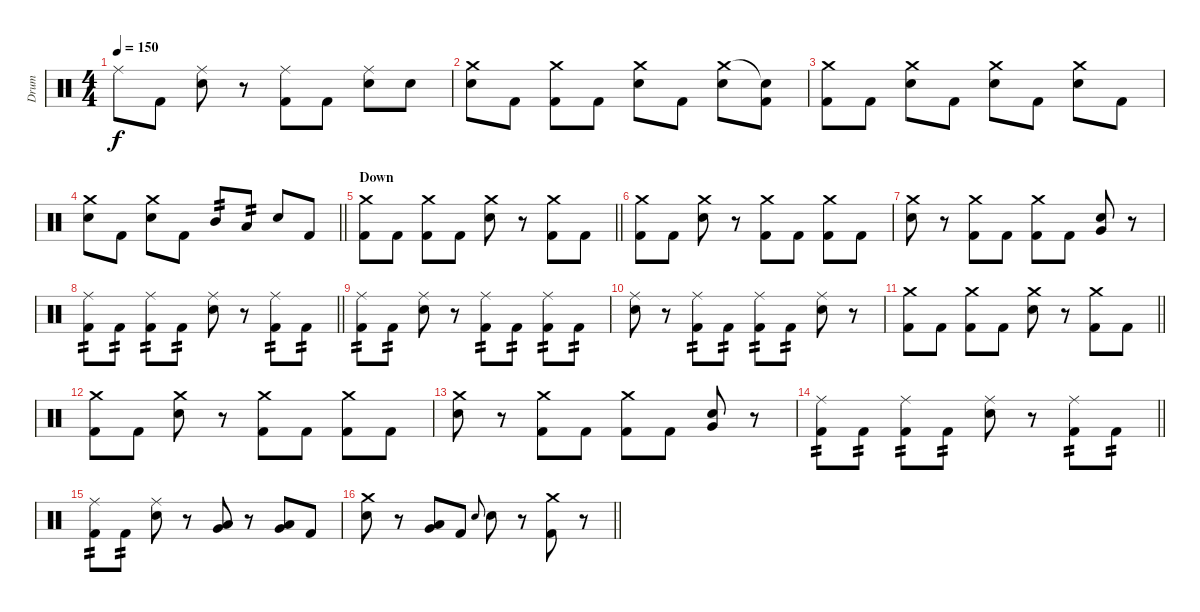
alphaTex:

\track ("Drum" "Drum") {instrument percussion}
\staff {score}
\articulation defaults
\ts (4 4)
\tempo 150
\clef neutral
\ks c "Ride (middle)".8{dy f} "Kick (hit) 2".8
("Electric Snare (hit)" "Ride (middle)").8 r.8 ("Kick (hit) 2" "Ride (middle)").8 "Kick (hit) 2".8 ("Electric Snare (hit)" "Ride (middle)").8 "Electric Snare (hit)".8 |
("Electric Snare (hit)" "Crash medium (hit)").8 "Kick (hit) 2".8 ("Kick (hit) 2" "Crash medium (hit)").8 "Kick (hit) 2".8 ("Electric Snare (hit)" "Crash medium (hit)").8 "Kick (hit) 2".8 ("Electric Snare (hit)" "Crash medium (hit)").8 ("Kick (hit) 2" "Snare (hit)"{t}).8 |
("Kick (hit) 2" "Crash medium (hit)").8 "Kick (hit) 2".8 ("Electric Snare (hit)" "Crash medium (hit)").8 "Kick (hit) 2".8 ("Electric Snare (hit)" "Crash medium (hit)").8 "Kick (hit) 2".8 ("Electric Snare (hit)" "Crash medium (hit)").8 "Kick (hit) 2".8 |
\barLineRight lightlight
("Electric Snare (hit)" "Crash medium (hit)").8 "Kick (hit) 2".8 ("Electric Snare (hit)" "Crash medium (hit)").8 "Kick (hit) 2".8 "Mid Tom (hit)".8{tp 2} "Low Tom (hit)".8{tp 2} "Electric Snare (hit)".8 "Kick (hit) 2".8 |
\section ("" "Down")
\barLineRight lightlight
("Kick (hit) 2" "Crash medium (hit)").8 "Kick (hit) 2".8 ("Kick (hit) 2" "Crash medium (hit)").8 "Kick (hit) 2".8 ("Electric Snare (hit)" "Crash medium (hit)").8 r.8 ("Kick (hit) 2" "Crash medium (hit)").8 "Kick (hit) 2".8 |
("Kick (hit) 2" "Crash medium (hit)").8 "Kick (hit) 2".8 ("Electric Snare (hit)" "Crash medium (hit)").8 r.8 ("Kick (hit) 2" "Crash medium (hit)").8 "Kick (hit) 2".8 ("Kick (hit) 2" "Crash medium (hit)").8 "Kick (hit) 2".8 |
("Electric Snare (hit)" "Crash medium (hit)").8 r.8 ("Kick (hit) 2" "Crash medium (hit)").8 "Kick (hit) 2".8 ("Kick (hit) 2" "Crash medium (hit)").8 "Kick (hit) 2".8 ("Electric Snare (hit)" "Very Low Tom (hit)").8 r.8 |
\barLineRight lightlight
("Kick (hit) 2" "Ride (middle)").8{tp 2} "Kick (hit) 2".8{tp 2} ("Kick (hit) 2" "Ride (middle)").8{tp 2} "Kick (hit) 2".8{tp 2} ("Electric Snare (hit)" "Ride (middle)").8 r.8 ("Kick (hit) 2" "Ride (middle)").8{tp 2} "Kick (hit) 2".8{tp 2} |
("Kick (hit) 2" "Ride (middle)").8{tp 2} "Kick (hit) 2".8{tp 2} ("Electric Snare (hit)" "Ride (middle)").8 r.8 ("Kick (hit) 2" "Ride (middle)").8{tp 2} "Kick (hit) 2".8{tp 2} ("Kick (hit) 2" "Ride (middle)").8{tp 2} "Kick (hit) 2".8{tp 2} |
("Electric Snare (hit)" "Ride (middle)").8 r.8 ("Kick (hit) 2" "Ride (middle)").8{tp 2} "Kick (hit) 2".8{tp 2} ("Kick (hit) 2" "Ride (middle)").8{tp 2} "Kick (hit) 2".8{tp 2} ("Electric Snare (hit)" "Ride (middle)").8 r.8 |
\barLineRight lightlight
("Kick (hit) 2" "Crash medium (hit)").8 "Kick (hit) 2".8 ("Kick (hit) 2" "Crash medium (hit)").8 "Kick (hit) 2".8 ("Electric Snare (hit)" "Crash medium (hit)").8 r.8 ("Kick (hit) 2" "Crash medium (hit)").8 "Kick (hit) 2".8 |
("Kick (hit) 2" "Crash medium (hit)").8 "Kick (hit) 2".8 ("Electric Snare (hit)" "Crash medium (hit)").8 r.8 ("Kick (hit) 2" "Crash medium (hit)").8 "Kick (hit) 2".8 ("Kick (hit) 2" "Crash medium (hit)").8 "Kick (hit) 2".8 |
("Electric Snare (hit)" "Crash medium (hit)").8 r.8 ("Kick (hit) 2" "Crash medium (hit)").8 "Kick (hit) 2".8 ("Kick (hit) 2" "Crash medium (hit)").8 "Kick (hit) 2".8 ("Electric Snare (hit)" "Very Low Tom (hit)").8 r.8 |
\barLineRight lightlight
("Kick (hit) 2" "Ride (middle)").8{tp 2} "Kick (hit) 2".8{tp 2} ("Kick (hit) 2" "Ride (middle)").8{tp 2} "Kick (hit) 2".8{tp 2} ("Electric Snare (hit)" "Ride (middle)").8 r.8 ("Kick (hit) 2" "Ride (middle)").8{tp 2} "Kick (hit) 2".8{tp 2} |
("Kick (hit) 2" "Ride (middle)").8{tp 2} "Kick (hit) 2".8{tp 2} ("Electric Snare (hit)" "Ride (middle)").8 r.8 ("Very Low Tom (hit)" "Low Tom (hit)").8 r.8 ("Very Low Tom (hit)" "Low Tom (hit)").8 "Kick (hit) 2".8 |
\barLineRight lightlight
("Electric Snare (hit)" "Crash medium (hit)").8 r.8 ("Very Low Tom (hit)" "Low Tom (hit)").8 "Kick (hit) 2".8 "Electric Snare (hit)".8{gr onbeat} "Electric Snare (hit)".8 r.8 ("Kick (hit) 2" "Crash medium (hit)").8 r.8
